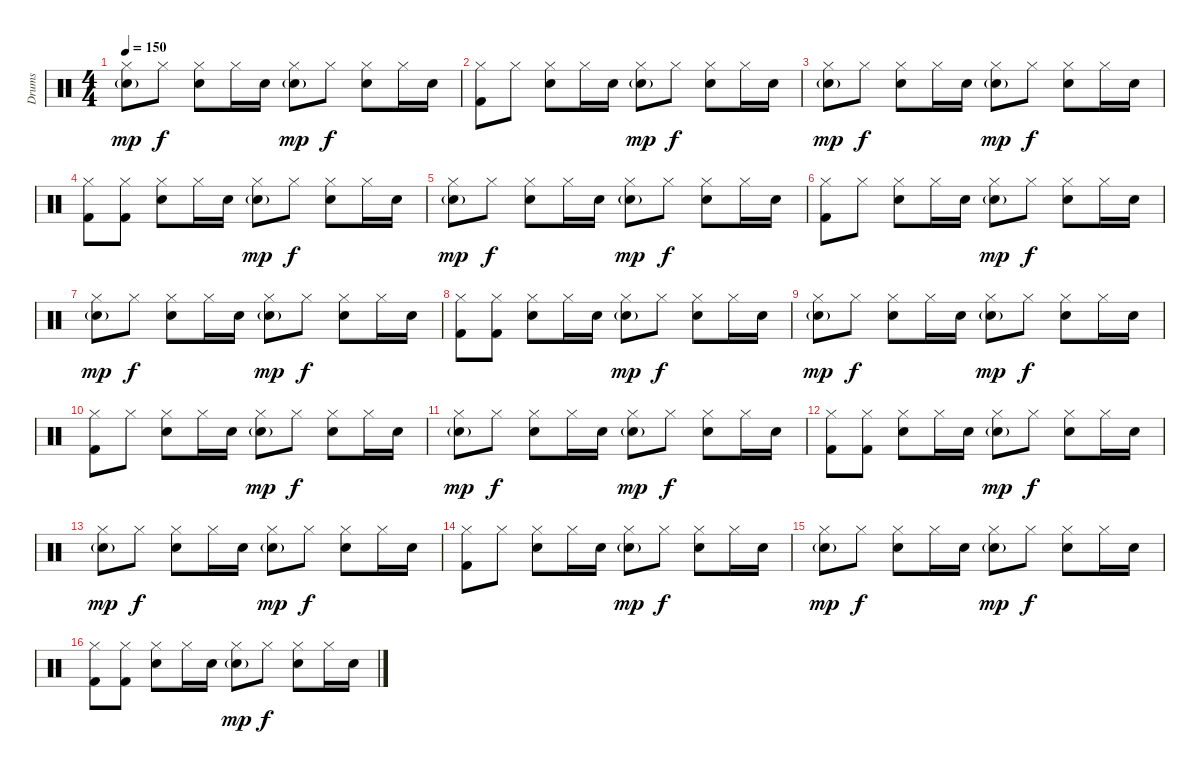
\track ("Drums" "Drums") {instrument percussion}
\staff {score}
\articulation defaults
\ts (4 4)
\tempo 150
\clef neutral
\ks c
("Hi-Hat (closed)" "Snare (hit) 2"{g}).8{dy mp} "Hi-Hat (closed)".8{dy f} ("Hi-Hat (closed)" "Snare (hit) 2").8 "Hi-Hat (closed)".16 "Snare (hit) 2".16 ("Hi-Hat (closed)" "Snare (hit) 2"{g}).8{dy mp} "Hi-Hat (closed)".8{dy f} ("Hi-Hat (closed)" "Snare (hit) 2").8 "Hi-Hat (closed)".16 "Snare (hit) 2".16 |
("Hi-Hat (closed)" "Kick (hit) 2").8 "Hi-Hat (closed)".8 ("Hi-Hat (closed)" "Snare (hit) 2").8 "Hi-Hat (closed)".16 "Snare (hit) 2".16 ("Hi-Hat (closed)" "Snare (hit) 2"{g}).8{dy mp} "Hi-Hat (closed)".8{dy f} ("Hi-Hat (closed)" "Snare (hit) 2").8 "Hi-Hat (closed)".16 "Snare (hit) 2".16 |
("Hi-Hat (closed)" "Snare (hit) 2"{g}).8{dy mp} "Hi-Hat (closed)".8{dy f} ("Hi-Hat (closed)" "Snare (hit) 2").8 "Hi-Hat (closed)".16 "Snare (hit) 2".16 ("Hi-Hat (closed)" "Snare (hit) 2"{g}).8{dy mp} "Hi-Hat (closed)".8{dy f} ("Hi-Hat (closed)" "Snare (hit) 2").8 "Hi-Hat (closed)".16 "Snare (hit) 2".16 |
("Hi-Hat (closed)" "Kick (hit) 2").8 ("Hi-Hat (closed)" "Kick (hit) 2").8 ("Hi-Hat (closed)" "Snare (hit) 2").8 "Hi-Hat (closed)".16 "Snare (hit) 2".16 ("Hi-Hat (closed)" "Snare (hit) 2"{g}).8{dy mp} "Hi-Hat (closed)".8{dy f} ("Hi-Hat (closed)" "Snare (hit) 2").8 "Hi-Hat (closed)".16 "Snare (hit) 2".16 |
("Hi-Hat (closed)" "Snare (hit) 2"{g}).8{dy mp} "Hi-Hat (closed)".8{dy f} ("Hi-Hat (closed)" "Snare (hit) 2").8 "Hi-Hat (closed)".16 "Snare (hit) 2".16 ("Hi-Hat (closed)" "Snare (hit) 2"{g}).8{dy mp} "Hi-Hat (closed)".8{dy f} ("Hi-Hat (closed)" "Snare (hit) 2").8 "Hi-Hat (closed)".16 "Snare (hit) 2".16 |
("Hi-Hat (closed)" "Kick (hit) 2").8 "Hi-Hat (closed)".8 ("Hi-Hat (closed)" "Snare (hit) 2").8 "Hi-Hat (closed)".16 "Snare (hit) 2".16 ("Hi-Hat (closed)" "Snare (hit) 2"{g}).8{dy mp} "Hi-Hat (closed)".8{dy f} ("Hi-Hat (closed)" "Snare (hit) 2").8 "Hi-Hat (closed)".16 "Snare (hit) 2".16 |
("Hi-Hat (closed)" "Snare (hit) 2"{g}).8{dy mp} "Hi-Hat (closed)".8{dy f} ("Hi-Hat (closed)" "Snare (hit) 2").8 "Hi-Hat (closed)".16 "Snare (hit) 2".16 ("Hi-Hat (closed)" "Snare (hit) 2"{g}).8{dy mp} "Hi-Hat (closed)".8{dy f} ("Hi-Hat (closed)" "Snare (hit) 2").8 "Hi-Hat (closed)".16 "Snare (hit) 2".16 |
("Hi-Hat (closed)" "Kick (hit) 2").8 ("Hi-Hat (closed)" "Kick (hit) 2").8 ("Hi-Hat (closed)" "Snare (hit) 2").8 "Hi-Hat (closed)".16 "Snare (hit) 2".16 ("Hi-Hat (closed)" "Snare (hit) 2"{g}).8{dy mp} "Hi-Hat (closed)".8{dy f} ("Hi-Hat (closed)" "Snare (hit) 2").8 "Hi-Hat (closed)".16 "Snare (hit) 2".16 |
("Hi-Hat (closed)" "Snare (hit) 2"{g}).8{dy mp} "Hi-Hat (closed)".8{dy f} ("Hi-Hat (closed)" "Snare (hit) 2").8 "Hi-Hat (closed)".16 "Snare (hit) 2".16 ("Hi-Hat (closed)" "Snare (hit) 2"{g}).8{dy mp} "Hi-Hat (closed)".8{dy f} ("Hi-Hat (closed)" "Snare (hit) 2").8 "Hi-Hat (closed)".16 "Snare (hit) 2".16 |
("Hi-Hat (closed)" "Kick (hit) 2").8 "Hi-Hat (closed)".8 ("Hi-Hat (closed)" "Snare (hit) 2").8 "Hi-Hat (closed)".16 "Snare (hit) 2".16 ("Hi-Hat (closed)" "Snare (hit) 2"{g}).8{dy mp} "Hi-Hat (closed)".8{dy f} ("Hi-Hat (closed)" "Snare (hit) 2").8 "Hi-Hat (closed)".16 "Snare (hit) 2".16 |
("Hi-Hat (closed)" "Snare (hit) 2"{g}).8{dy mp} "Hi-Hat (closed)".8{dy f} ("Hi-Hat (closed)" "Snare (hit) 2").8 "Hi-Hat (closed)".16 "Snare (hit) 2".16 ("Hi-Hat (closed)" "Snare (hit) 2"{g}).8{dy mp} "Hi-Hat (closed)".8{dy f} ("Hi-Hat (closed)" "Snare (hit) 2").8 "Hi-Hat (closed)".16 "Snare (hit) 2".16 |
("Hi-Hat (closed)" "Kick (hit) 2").8 ("Hi-Hat (closed)" "Kick (hit) 2").8 ("Hi-Hat (closed)" "Snare (hit) 2").8 "Hi-Hat (closed)".16 "Snare (hit) 2".16 ("Hi-Hat (closed)" "Snare (hit) 2"{g}).8{dy mp} "Hi-Hat (closed)".8{dy f} ("Hi-Hat (closed)" "Snare (hit) 2").8 "Hi-Hat (closed)".16 "Snare (hit) 2".16 |
("Hi-Hat (closed)" "Snare (hit) 2"{g}).8{dy mp} "Hi-Hat (closed)".8{dy f} ("Hi-Hat (closed)" "Snare (hit) 2").8 "Hi-Hat (closed)".16 "Snare (hit) 2".16 ("Hi-Hat (closed)" "Snare (hit) 2"{g}).8{dy mp} "Hi-Hat (closed)".8{dy f} ("Hi-Hat (closed)" "Snare (hit) 2").8 "Hi-Hat (closed)".16 "Snare (hit) 2".16 |
("Hi-Hat (closed)" "Kick (hit) 2").8 "Hi-Hat (closed)".8 ("Hi-Hat (closed)" "Snare (hit) 2").8 "Hi-Hat (closed)".16 "Snare (hit) 2".16 ("Hi-Hat (closed)" "Snare (hit) 2"{g}).8{dy mp} "Hi-Hat (closed)".8{dy f} ("Hi-Hat (closed)" "Snare (hit) 2").8 "Hi-Hat (closed)".16 "Snare (hit) 2".16 |
("Hi-Hat (closed)" "Snare (hit) 2"{g}).8{dy mp} "Hi-Hat (closed)".8{dy f} ("Hi-Hat (closed)" "Snare (hit) 2").8 "Hi-Hat (closed)".16 "Snare (hit) 2".16 ("Hi-Hat (closed)" "Snare (hit) 2"{g}).8{dy mp} "Hi-Hat (closed)".8{dy f} ("Hi-Hat (closed)" "Snare (hit) 2").8 "Hi-Hat (closed)".16 "Snare (hit) 2".16 |
("Hi-Hat (closed)" "Kick (hit) 2").8 ("Hi-Hat (closed)" "Kick (hit) 2").8 ("Hi-Hat (closed)" "Snare (hit) 2").8 "Hi-Hat (closed)".16 "Snare (hit) 2".16 ("Hi-Hat (closed)" "Snare (hit) 2"{g}).8{dy mp} "Hi-Hat (closed)".8{dy f} ("Hi-Hat (closed)" "Snare (hit) 2").8 "Hi-Hat (closed)".16 "Snare (hit) 2".16
